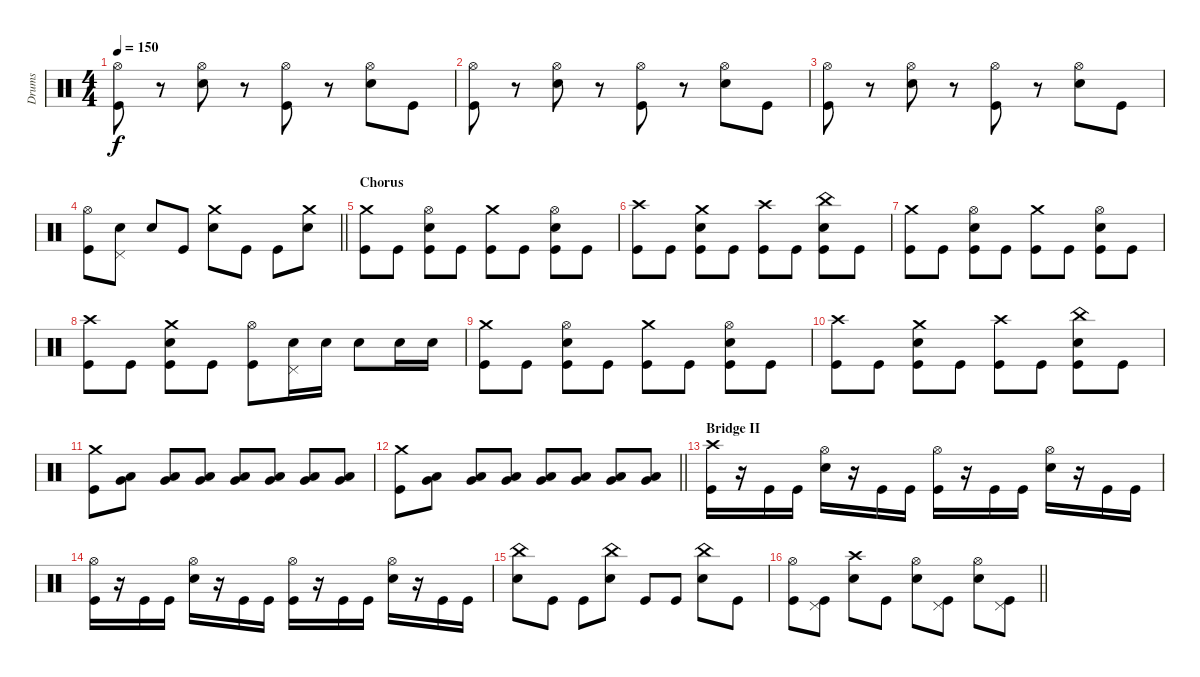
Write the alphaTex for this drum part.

\track ("Drums" "Drums") {instrument percussion}
\staff {score}
\articulation defaults
\ts (4 4)
\tempo 150
\clef neutral
\ks c
("Hi-Hat (open)" "Kick (hit)").8{dy f} r.8 ("Hi-Hat (open)" "Electric Snare (hit)").8 r.8 ("Hi-Hat (open)" "Kick (hit)").8 r.8 ("Hi-Hat (open)" "Electric Snare (hit)").8 "Kick (hit)".8 |
("Hi-Hat (open)" "Kick (hit)").8 r.8 ("Hi-Hat (open)" "Electric Snare (hit)").8 r.8 ("Hi-Hat (open)" "Kick (hit)").8 r.8 ("Hi-Hat (open)" "Electric Snare (hit)").8 "Kick (hit)".8 |
("Hi-Hat (open)" "Kick (hit)").8 r.8 ("Hi-Hat (open)" "Electric Snare (hit)").8 r.8 ("Hi-Hat (open)" "Kick (hit)").8 r.8 ("Hi-Hat (open)" "Electric Snare (hit)").8 "Kick (hit)".8 |
\barLineRight lightlight
("Hi-Hat (open)" "Kick (hit)").8 ("Pedal Hi-Hat (hit)" "Electric Snare (hit)").8 "Electric Snare (hit)".8 "Kick (hit)".8 ("Crash medium (hit)" "Electric Snare (hit)").8 "Kick (hit)".8 "Kick (hit)".8 ("Crash medium (hit)" "Electric Snare (hit)").8 |
\section ("" "Chorus")
("Crash medium (hit)" "Kick (hit)").8 "Kick (hit)".8 ("Hi-Hat (open)" "Electric Snare (hit)" "Kick (hit)").8 "Kick (hit)".8 ("Crash medium (hit)" "Kick (hit)").8 "Kick (hit)".8 ("Hi-Hat (open)" "Electric Snare (hit)" "Kick (hit)").8 "Kick (hit)".8 |
("Crash high (hit)" "Kick (hit)").8 "Kick (hit)".8 ("Crash medium (hit)" "Electric Snare (hit)" "Kick (hit)").8 "Kick (hit)".8 ("Crash high (hit)" "Kick (hit)").8 "Kick (hit)".8 ("China (hit)" "Electric Snare (hit)" "Kick (hit)").8 "Kick (hit)".8 |
("Crash medium (hit)" "Kick (hit)").8 "Kick (hit)".8 ("Hi-Hat (open)" "Electric Snare (hit)" "Kick (hit)").8 "Kick (hit)".8 ("Crash medium (hit)" "Kick (hit)").8 "Kick (hit)".8 ("Hi-Hat (open)" "Electric Snare (hit)" "Kick (hit)").8 "Kick (hit)".8 |
("Crash high (hit)" "Kick (hit)").8 "Kick (hit)".8 ("Crash medium (hit)" "Electric Snare (hit)" "Kick (hit)").8 "Kick (hit)".8 ("Hi-Hat (open)" "Kick (hit)").8 ("Pedal Hi-Hat (hit)" "Electric Snare (hit)").16 "Electric Snare (hit)".16 "Electric Snare (hit)".8 "Electric Snare (hit)".16 "Electric Snare (hit)".16 |
("Crash medium (hit)" "Kick (hit)").8 "Kick (hit)".8 ("Hi-Hat (open)" "Electric Snare (hit)" "Kick (hit)").8 "Kick (hit)".8 ("Crash medium (hit)" "Kick (hit)").8 "Kick (hit)".8 ("Hi-Hat (open)" "Electric Snare (hit)" "Kick (hit)").8 "Kick (hit)".8 |
("Crash high (hit)" "Kick (hit)").8 "Kick (hit)".8 ("Crash medium (hit)" "Electric Snare (hit)" "Kick (hit)").8 "Kick (hit)".8 ("Crash high (hit)" "Kick (hit)").8 "Kick (hit)".8 ("China (hit)" "Electric Snare (hit)" "Kick (hit)").8 "Kick (hit)".8 |
("Crash medium (hit)" "Kick (hit)").8 ("Low Tom (hit)" "Very Low Tom (hit)").8 ("Low Tom (hit)" "Very Low Tom (hit)").8 ("Low Tom (hit)" "Very Low Tom (hit)").8 ("Low Tom (hit)" "Very Low Tom (hit)").8 ("Low Tom (hit)" "Very Low Tom (hit)").8 ("Low Tom (hit)" "Very Low Tom (hit)").8 ("Low Tom (hit)" "Very Low Tom (hit)").8 |
\barLineRight lightlight
("Crash medium (hit)" "Kick (hit)").8 ("Low Tom (hit)" "Very Low Tom (hit)").8 ("Low Tom (hit)" "Very Low Tom (hit)").8 ("Low Tom (hit)" "Very Low Tom (hit)").8 ("Low Tom (hit)" "Very Low Tom (hit)").8 ("Low Tom (hit)" "Very Low Tom (hit)").8 ("Low Tom (hit)" "Very Low Tom (hit)").8 ("Low Tom (hit)" "Very Low Tom (hit)").8 |
\section ("" "Bridge II")
("Crash high (hit)" "Kick (hit)").16 r.16 "Kick (hit)".16 "Kick (hit)".16 ("Hi-Hat (open)" "Electric Snare (hit)").16 r.16 "Kick (hit)".16 "Kick (hit)".16 ("Hi-Hat (open)" "Kick (hit)").16 r.16 "Kick (hit)".16 "Kick (hit)".16 ("Hi-Hat (open)" "Electric Snare (hit)").16 r.16 "Kick (hit)".16 "Kick (hit)".16 |
("Hi-Hat (open)" "Kick (hit)").16 r.16 "Kick (hit)".16 "Kick (hit)".16 ("Hi-Hat (open)" "Electric Snare (hit)").16 r.16 "Kick (hit)".16 "Kick (hit)".16 ("Hi-Hat (open)" "Kick (hit)").16 r.16 "Kick (hit)".16 "Kick (hit)".16 ("Hi-Hat (open)" "Electric Snare (hit)").16 r.16 "Kick (hit)".16 "Kick (hit)".16 |
("China (hit)" "Electric Snare (hit)").8 "Kick (hit)".8 "Kick (hit)".8 ("China (hit)" "Electric Snare (hit)").8 "Kick (hit)".8 "Kick (hit)".8 ("China (hit)" "Electric Snare (hit)").8 "Kick (hit)".8 |
\barLineRight lightlight
("Hi-Hat (open)" "Kick (hit)").8 ("Pedal Hi-Hat (hit)" "Kick (hit)").8 ("Crash high (hit)" "Electric Snare (hit)").8 "Kick (hit)".8 ("Hi-Hat (open)" "Electric Snare (hit)").8 ("Pedal Hi-Hat (hit)" "Kick (hit)").8 ("Hi-Hat (open)" "Electric Snare (hit)").8 ("Pedal Hi-Hat (hit)" "Kick (hit)").8
